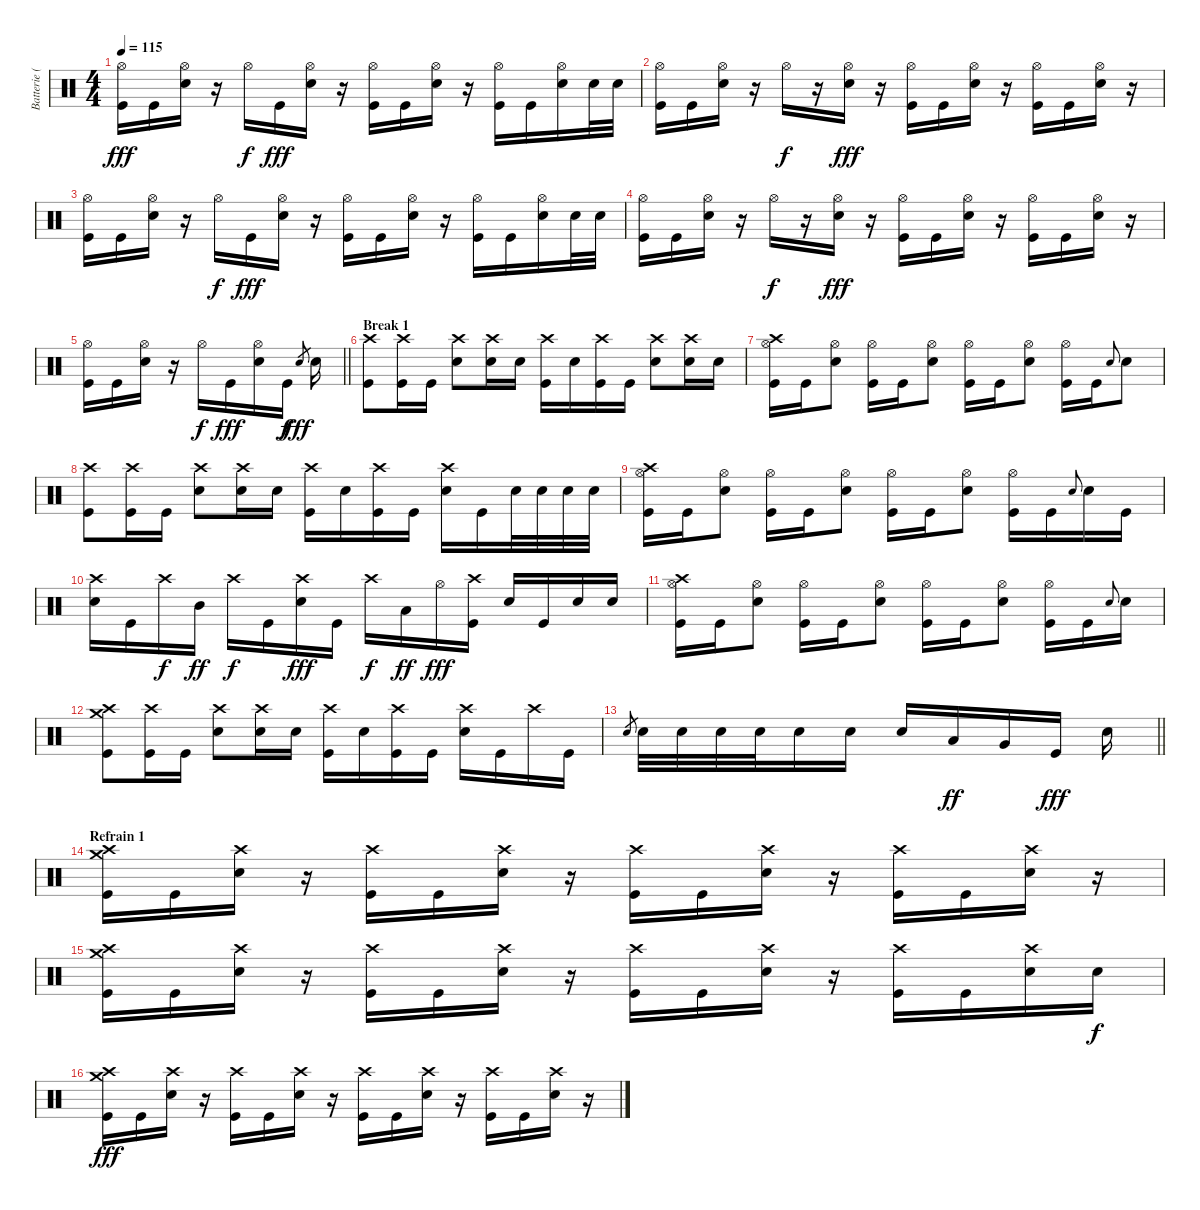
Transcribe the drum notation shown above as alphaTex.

\track ("Batterie (Steve)" "Batterie (") {instrument percussion}
\staff {score}
\articulation defaults
\ts (4 4)
\tempo 115
\clef neutral
\ks c
("Hi-Hat (open)" "Kick (hit)").16{dy fff} "Kick (hit)".16 ("Hi-Hat (open)" "Electric Snare (hit)").16 r.16 "Hi-Hat (open)".16{dy f} "Kick (hit)".16{dy fff} ("Hi-Hat (open)" "Electric Snare (hit)").16 r.16 ("Hi-Hat (open)" "Kick (hit)").16 "Kick (hit)".16 ("Hi-Hat (open)" "Electric Snare (hit)").16 r.16 ("Hi-Hat (open)" "Kick (hit)").16 "Kick (hit)".16 ("Hi-Hat (open)" "Electric Snare (hit)").16 "Electric Snare (hit)".32 "Electric Snare (hit)".32 |
("Hi-Hat (open)" "Kick (hit)").16 "Kick (hit)".16 ("Hi-Hat (open)" "Electric Snare (hit)").16 r.16 "Hi-Hat (open)".16{dy f} r.16 ("Hi-Hat (open)" "Electric Snare (hit)").16{dy fff} r.16 ("Hi-Hat (open)" "Kick (hit)").16 "Kick (hit)".16 ("Hi-Hat (open)" "Electric Snare (hit)").16 r.16 ("Hi-Hat (open)" "Kick (hit)").16 "Kick (hit)".16 ("Hi-Hat (open)" "Electric Snare (hit)").16 r.16 |
("Hi-Hat (open)" "Kick (hit)").16 "Kick (hit)".16 ("Hi-Hat (open)" "Electric Snare (hit)").16 r.16 "Hi-Hat (open)".16{dy f} "Kick (hit)".16{dy fff} ("Hi-Hat (open)" "Electric Snare (hit)").16 r.16 ("Hi-Hat (open)" "Kick (hit)").16 "Kick (hit)".16 ("Hi-Hat (open)" "Electric Snare (hit)").16 r.16 ("Hi-Hat (open)" "Kick (hit)").16 "Kick (hit)".16 ("Hi-Hat (open)" "Electric Snare (hit)").16 "Electric Snare (hit)".32 "Electric Snare (hit)".32 |
("Hi-Hat (open)" "Kick (hit)").16 "Kick (hit)".16 ("Hi-Hat (open)" "Electric Snare (hit)").16 r.16 "Hi-Hat (open)".16{dy f} r.16 ("Hi-Hat (open)" "Electric Snare (hit)").16{dy fff} r.16 ("Hi-Hat (open)" "Kick (hit)").16 "Kick (hit)".16 ("Hi-Hat (open)" "Electric Snare (hit)").16 r.16 ("Hi-Hat (open)" "Kick (hit)").16 "Kick (hit)".16 ("Hi-Hat (open)" "Electric Snare (hit)").16 r.16 |
\barLineRight lightlight
("Hi-Hat (open)" "Kick (hit)").16 "Kick (hit)".16 ("Hi-Hat (open)" "Electric Snare (hit)").16 r.16 "Hi-Hat (open)".16{dy f} "Kick (hit)".16{dy fff} ("Hi-Hat (open)" "Electric Snare (hit)").16 "Kick (hit)".16{dy f} "Electric Snare (hit)".8{gr dy fff} "Electric Snare (hit)".16 |
\section ("" "Break 1")
("Crash high (hit)" "Kick (hit)").8 ("Crash high (hit)" "Kick (hit)").16 "Kick (hit)".16 ("Crash high (hit)" "Electric Snare (hit)").8 ("Crash high (hit)" "Electric Snare (hit)").16 "Electric Snare (hit)".16 ("Crash high (hit)" "Kick (hit)").16 "Electric Snare (hit)".16 ("Crash high (hit)" "Kick (hit)").16 "Kick (hit)".16 ("Crash high (hit)" "Electric Snare (hit)").8 ("Crash high (hit)" "Electric Snare (hit)").16 "Electric Snare (hit)".16 |
("Hi-Hat (open)" "Crash high (hit)" "Kick (hit)").16 "Kick (hit)".16 ("Hi-Hat (open)" "Electric Snare (hit)").8 ("Hi-Hat (open)" "Kick (hit)").16 "Kick (hit)".16 ("Hi-Hat (open)" "Electric Snare (hit)").8 ("Hi-Hat (open)" "Kick (hit)").16 "Kick (hit)".16 ("Hi-Hat (open)" "Electric Snare (hit)").8 ("Hi-Hat (open)" "Kick (hit)").16 "Kick (hit)".16 "Electric Snare (hit)".8{gr onbeat} "Electric Snare (hit)".8 |
("Crash high (hit)" "Kick (hit)").8 ("Crash high (hit)" "Kick (hit)").16 "Kick (hit)".16 ("Crash high (hit)" "Electric Snare (hit)").8 ("Crash high (hit)" "Electric Snare (hit)").16 "Electric Snare (hit)".16 ("Crash high (hit)" "Kick (hit)").16 "Electric Snare (hit)".16 ("Crash high (hit)" "Kick (hit)").16 "Kick (hit)".16 ("Crash high (hit)" "Electric Snare (hit)").16 "Kick (hit)".16 "Electric Snare (hit)".32 "Electric Snare (hit)".32 "Electric Snare (hit)".32 "Electric Snare (hit)".32 |
("Hi-Hat (open)" "Crash high (hit)" "Kick (hit)").16 "Kick (hit)".16 ("Hi-Hat (open)" "Electric Snare (hit)").8 ("Hi-Hat (open)" "Kick (hit)").16 "Kick (hit)".16 ("Hi-Hat (open)" "Electric Snare (hit)").8 ("Hi-Hat (open)" "Kick (hit)").16 "Kick (hit)".16 ("Hi-Hat (open)" "Electric Snare (hit)").8 ("Hi-Hat (open)" "Kick (hit)").16 "Kick (hit)".16 "Electric Snare (hit)".8{gr onbeat} "Electric Snare (hit)".16 "Kick (hit)".16 |
("Crash high (hit)" "Electric Snare (hit)").16 "Kick (hit)".16 "Crash high (hit)".16{dy f} "Mid Tom (hit)".16{dy ff} "Crash high (hit)".16{dy f} "Kick (hit)".16 ("Crash high (hit)" "Electric Snare (hit)").16{dy fff} "Kick (hit)".16 "Crash high (hit)".16{dy f} "Low Tom (hit)".16{dy ff} "Hi-Hat (open)".16{dy fff} ("Crash high (hit)" "Kick (hit)").16 "Electric Snare (hit)".16 "Kick (hit)".16 "Electric Snare (hit)".16 "Electric Snare (hit)".16 |
("Hi-Hat (open)" "Crash high (hit)" "Kick (hit)").16 "Kick (hit)".16 ("Hi-Hat (open)" "Electric Snare (hit)").8 ("Hi-Hat (open)" "Kick (hit)").16 "Kick (hit)".16 ("Hi-Hat (open)" "Electric Snare (hit)").8 ("Hi-Hat (open)" "Kick (hit)").16 "Kick (hit)".16 ("Hi-Hat (open)" "Electric Snare (hit)").8 ("Hi-Hat (open)" "Kick (hit)").16 "Kick (hit)".16 "Electric Snare (hit)".8{gr onbeat} "Electric Snare (hit)".16 |
("Crash medium (hit)" "Crash high (hit)" "Kick (hit)").8 ("Crash high (hit)" "Kick (hit)").16 "Kick (hit)".16 ("Crash high (hit)" "Electric Snare (hit)").8 ("Crash high (hit)" "Electric Snare (hit)").16 "Electric Snare (hit)".16 ("Crash high (hit)" "Kick (hit)").16 "Electric Snare (hit)".16 ("Crash high (hit)" "Kick (hit)").16 "Kick (hit)".16 ("Crash high (hit)" "Electric Snare (hit)").16 "Kick (hit)".16 "Crash high (hit)".16 "Kick (hit)".16 |
\barLineRight lightlight "Electric Snare (hit)".8{gr} "Electric Snare (hit)".32 "Electric Snare (hit)".32 "Electric Snare (hit)".32 "Electric Snare (hit)".32 "Electric Snare (hit)".16 "Electric Snare (hit)".16 "Electric Snare (hit)".16 "Low Tom (hit)".16{dy ff} "Very Low Tom (hit)".16 "Kick (hit)".16{dy fff} "Electric Snare (hit)".16
|
\section ("" "Refrain 1")
("Crash medium (hit)" "Crash high (hit)" "Kick (hit)").16 "Kick (hit)".16 ("Crash high (hit)" "Electric Snare (hit)").16 r.16 ("Crash high (hit)" "Kick (hit)").16 "Kick (hit)".16 ("Crash high (hit)" "Electric Snare (hit)").16 r.16 ("Crash high (hit)" "Kick (hit)").16 "Kick (hit)".16 ("Crash high (hit)" "Electric Snare (hit)").16 r.16 ("Crash high (hit)" "Kick (hit)").16 "Kick (hit)".16 ("Crash high (hit)" "Electric Snare (hit)").16 r.16 |
("Crash medium (hit)" "Crash high (hit)" "Kick (hit)").16 "Kick (hit)".16 ("Crash high (hit)" "Electric Snare (hit)").16 r.16 ("Crash high (hit)" "Kick (hit)").16 "Kick (hit)".16 ("Crash high (hit)" "Electric Snare (hit)").16 r.16 ("Crash high (hit)" "Kick (hit)").16 "Kick (hit)".16 ("Crash high (hit)" "Electric Snare (hit)").16 r.16 ("Crash high (hit)" "Kick (hit)").16 "Kick (hit)".16 ("Crash high (hit)" "Electric Snare (hit)").16 "Electric Snare (hit)".16{dy f} |
("Crash medium (hit)" "Crash high (hit)" "Kick (hit)").16{dy fff} "Kick (hit)".16 ("Crash high (hit)" "Electric Snare (hit)").16 r.16 ("Crash high (hit)" "Kick (hit)").16 "Kick (hit)".16 ("Crash high (hit)" "Electric Snare (hit)").16 r.16 ("Crash high (hit)" "Kick (hit)").16 "Kick (hit)".16 ("Crash high (hit)" "Electric Snare (hit)").16 r.16 ("Crash high (hit)" "Kick (hit)").16 "Kick (hit)".16 ("Crash high (hit)" "Electric Snare (hit)").16 r.16
